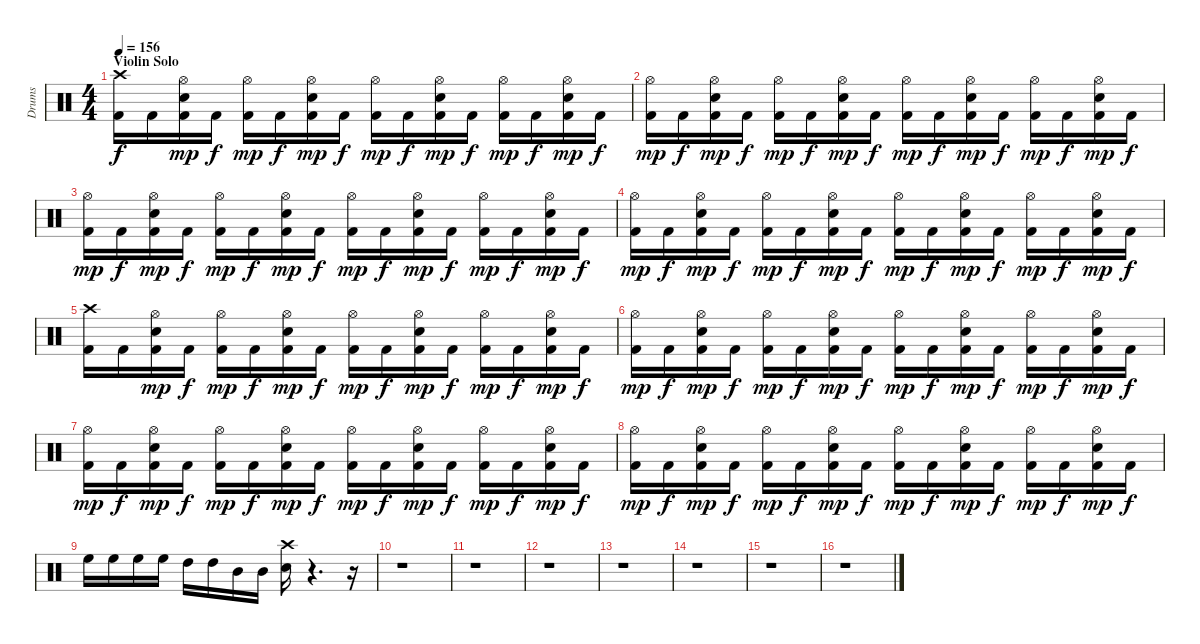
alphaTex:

\track ("Drums" "Drums") {instrument percussion}
\staff {score}
\articulation defaults
\ts (4 4)
\section ("" "Violin Solo")
\tempo 156
\clef neutral
\ks c
("Kick (hit) 2" "Crash high (hit)").16{dy f} "Kick (hit) 2".16 ("Snare (hit) 2" "Kick (hit) 2" "Hi-Hat (open)").16{dy mp} "Kick (hit) 2".16{dy f} ("Kick (hit) 2" "Hi-Hat (open)").16{dy mp} "Kick (hit) 2".16{dy f} ("Snare (hit) 2" "Kick (hit) 2" "Hi-Hat (open)").16{dy mp} "Kick (hit) 2".16{dy f} ("Kick (hit) 2" "Hi-Hat (open)").16{dy mp} "Kick (hit) 2".16{dy f} ("Snare (hit) 2" "Kick (hit) 2" "Hi-Hat (open)").16{dy mp} "Kick (hit) 2".16{dy f} ("Kick (hit) 2" "Hi-Hat (open)").16{dy mp} "Kick (hit) 2".16{dy f} ("Snare (hit) 2" "Kick (hit) 2" "Hi-Hat (open)").16{dy mp} "Kick (hit) 2".16{dy f} |
("Kick (hit) 2" "Hi-Hat (open)").16{dy mp} "Kick (hit) 2".16{dy f} ("Snare (hit) 2" "Kick (hit) 2" "Hi-Hat (open)").16{dy mp} "Kick (hit) 2".16{dy f} ("Kick (hit) 2" "Hi-Hat (open)").16{dy mp} "Kick (hit) 2".16{dy f} ("Snare (hit) 2" "Kick (hit) 2" "Hi-Hat (open)").16{dy mp} "Kick (hit) 2".16{dy f} ("Kick (hit) 2" "Hi-Hat (open)").16{dy mp} "Kick (hit) 2".16{dy f} ("Snare (hit) 2" "Kick (hit) 2" "Hi-Hat (open)").16{dy mp} "Kick (hit) 2".16{dy f} ("Kick (hit) 2" "Hi-Hat (open)").16{dy mp} "Kick (hit) 2".16{dy f} ("Snare (hit) 2" "Kick (hit) 2" "Hi-Hat (open)").16{dy mp} "Kick (hit) 2".16{dy f} |
("Kick (hit) 2" "Hi-Hat (open)").16{dy mp} "Kick (hit) 2".16{dy f} ("Snare (hit) 2" "Kick (hit) 2" "Hi-Hat (open)").16{dy mp} "Kick (hit) 2".16{dy f} ("Kick (hit) 2" "Hi-Hat (open)").16{dy mp} "Kick (hit) 2".16{dy f} ("Snare (hit) 2" "Kick (hit) 2" "Hi-Hat (open)").16{dy mp} "Kick (hit) 2".16{dy f} ("Kick (hit) 2" "Hi-Hat (open)").16{dy mp} "Kick (hit) 2".16{dy f} ("Snare (hit) 2" "Kick (hit) 2" "Hi-Hat (open)").16{dy mp} "Kick (hit) 2".16{dy f} ("Kick (hit) 2" "Hi-Hat (open)").16{dy mp} "Kick (hit) 2".16{dy f} ("Snare (hit) 2" "Kick (hit) 2" "Hi-Hat (open)").16{dy mp} "Kick (hit) 2".16{dy f} |
("Kick (hit) 2" "Hi-Hat (open)").16{dy mp} "Kick (hit) 2".16{dy f} ("Snare (hit) 2" "Kick (hit) 2" "Hi-Hat (open)").16{dy mp} "Kick (hit) 2".16{dy f} ("Kick (hit) 2" "Hi-Hat (open)").16{dy mp} "Kick (hit) 2".16{dy f} ("Snare (hit) 2" "Kick (hit) 2" "Hi-Hat (open)").16{dy mp} "Kick (hit) 2".16{dy f} ("Kick (hit) 2" "Hi-Hat (open)").16{dy mp} "Kick (hit) 2".16{dy f} ("Snare (hit) 2" "Kick (hit) 2" "Hi-Hat (open)").16{dy mp} "Kick (hit) 2".16{dy f} ("Kick (hit) 2" "Hi-Hat (open)").16{dy mp} "Kick (hit) 2".16{dy f} ("Snare (hit) 2" "Kick (hit) 2" "Hi-Hat (open)").16{dy mp} "Kick (hit) 2".16{dy f} |
("Kick (hit) 2" "Crash high (hit)").16 "Kick (hit) 2".16 ("Snare (hit) 2" "Kick (hit) 2" "Hi-Hat (open)").16{dy mp} "Kick (hit) 2".16{dy f} ("Kick (hit) 2" "Hi-Hat (open)").16{dy mp} "Kick (hit) 2".16{dy f} ("Snare (hit) 2" "Kick (hit) 2" "Hi-Hat (open)").16{dy mp} "Kick (hit) 2".16{dy f} ("Kick (hit) 2" "Hi-Hat (open)").16{dy mp} "Kick (hit) 2".16{dy f} ("Snare (hit) 2" "Kick (hit) 2" "Hi-Hat (open)").16{dy mp} "Kick (hit) 2".16{dy f} ("Kick (hit) 2" "Hi-Hat (open)").16{dy mp} "Kick (hit) 2".16{dy f} ("Snare (hit) 2" "Kick (hit) 2" "Hi-Hat (open)").16{dy mp} "Kick (hit) 2".16{dy f} |
("Kick (hit) 2" "Hi-Hat (open)").16{dy mp} "Kick (hit) 2".16{dy f} ("Snare (hit) 2" "Kick (hit) 2" "Hi-Hat (open)").16{dy mp} "Kick (hit) 2".16{dy f} ("Kick (hit) 2" "Hi-Hat (open)").16{dy mp} "Kick (hit) 2".16{dy f} ("Snare (hit) 2" "Kick (hit) 2" "Hi-Hat (open)").16{dy mp} "Kick (hit) 2".16{dy f} ("Kick (hit) 2" "Hi-Hat (open)").16{dy mp} "Kick (hit) 2".16{dy f} ("Snare (hit) 2" "Kick (hit) 2" "Hi-Hat (open)").16{dy mp} "Kick (hit) 2".16{dy f} ("Kick (hit) 2" "Hi-Hat (open)").16{dy mp} "Kick (hit) 2".16{dy f} ("Snare (hit) 2" "Kick (hit) 2" "Hi-Hat (open)").16{dy mp} "Kick (hit) 2".16{dy f} |
("Kick (hit) 2" "Hi-Hat (open)").16{dy mp} "Kick (hit) 2".16{dy f} ("Snare (hit) 2" "Kick (hit) 2" "Hi-Hat (open)").16{dy mp} "Kick (hit) 2".16{dy f} ("Kick (hit) 2" "Hi-Hat (open)").16{dy mp} "Kick (hit) 2".16{dy f} ("Snare (hit) 2" "Kick (hit) 2" "Hi-Hat (open)").16{dy mp} "Kick (hit) 2".16{dy f} ("Kick (hit) 2" "Hi-Hat (open)").16{dy mp} "Kick (hit) 2".16{dy f} ("Snare (hit) 2" "Kick (hit) 2" "Hi-Hat (open)").16{dy mp} "Kick (hit) 2".16{dy f} ("Kick (hit) 2" "Hi-Hat (open)").16{dy mp} "Kick (hit) 2".16{dy f} ("Snare (hit) 2" "Kick (hit) 2" "Hi-Hat (open)").16{dy mp} "Kick (hit) 2".16{dy f} |
("Kick (hit) 2" "Hi-Hat (open)").16{dy mp} "Kick (hit) 2".16{dy f} ("Snare (hit) 2" "Kick (hit) 2" "Hi-Hat (open)").16{dy mp} "Kick (hit) 2".16{dy f} ("Kick (hit) 2" "Hi-Hat (open)").16{dy mp} "Kick (hit) 2".16{dy f} ("Snare (hit) 2" "Kick (hit) 2" "Hi-Hat (open)").16{dy mp} "Kick (hit) 2".16{dy f} ("Kick (hit) 2" "Hi-Hat (open)").16{dy mp} "Kick (hit) 2".16{dy f} ("Snare (hit) 2" "Kick (hit) 2" "Hi-Hat (open)").16{dy mp} "Kick (hit) 2".16{dy f} ("Kick (hit) 2" "Hi-Hat (open)").16{dy mp} "Kick (hit) 2".16{dy f} ("Snare (hit) 2" "Kick (hit) 2" "Hi-Hat (open)").16{dy mp} "Kick (hit) 2".16{dy f} |
"High Floor Tom (hit)".16 "High Floor Tom (hit)".16 "High Floor Tom (hit)".16 "High Floor Tom (hit)".16 "High Tom (hit)".16 "High Tom (hit)".16 "Mid Tom (hit)".16 "Mid Tom (hit)".16 ("Crash high (hit)" "Snare (hit) 2").16 r.4{d} r.16 |
\section ("" "")
r.1 |
r.1 |
r.1 |
r.1 |
r.1 |
r.1 |
r.1
